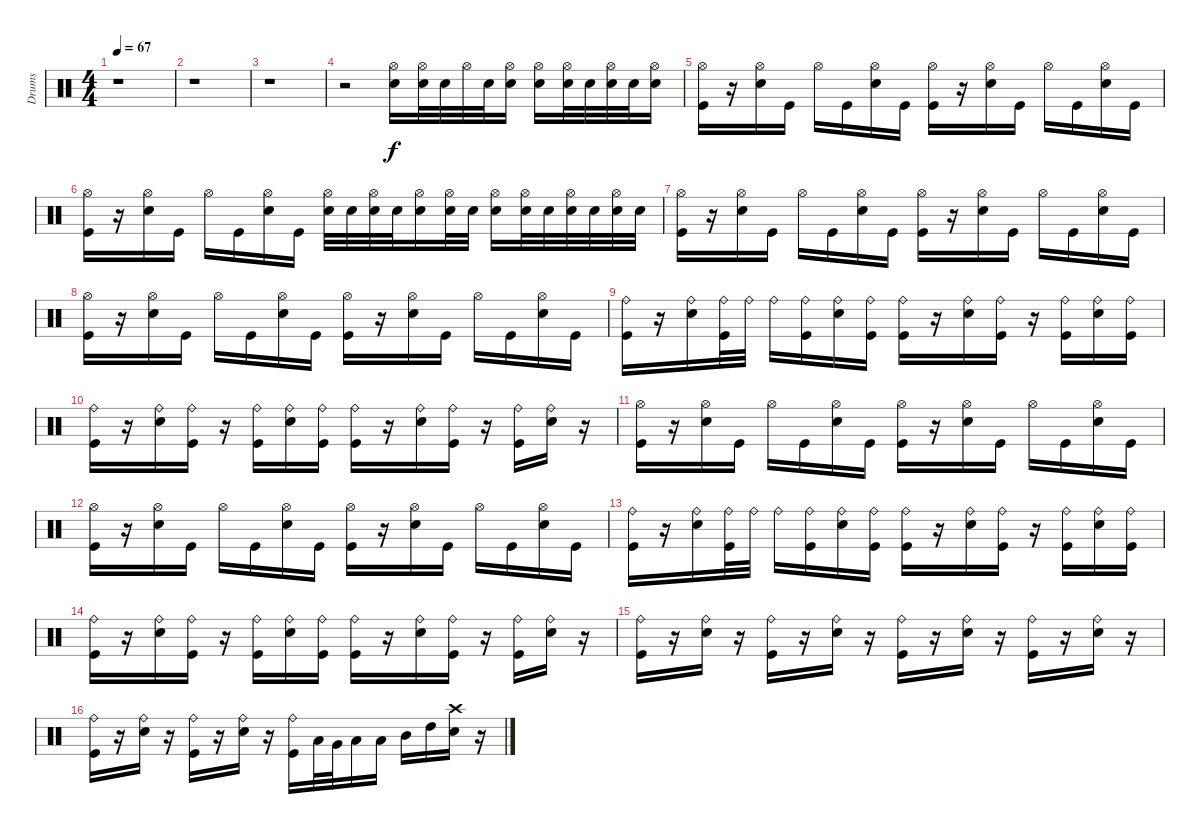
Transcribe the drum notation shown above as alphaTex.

\track ("Drums" "Drums") {instrument percussion}
\staff {score}
\articulation defaults
\ts (4 4)
\tempo 67
\clef neutral
\ks c
r.1{dy f} |
r.1 |
r.1 |
r.2 ("Hi-Hat (open)" "Metronome (bell)").16 ("Hi-Hat (open)" "Metronome (bell)").32 "Metronome (bell)".32 "Hi-Hat (open)".32 "Metronome (bell)".32 ("Hi-Hat (open)" "Metronome (bell)").16 ("Hi-Hat (open)" "Metronome (bell)").16 ("Hi-Hat (open)" "Metronome (bell)").32 "Metronome (bell)".32 ("Hi-Hat (open)" "Metronome (bell)").32 "Metronome (bell)".32 ("Hi-Hat (open)" "Metronome (bell)").16 |
("Hi-Hat (open)" "Kick (hit)").16 r.16 ("Hi-Hat (open)" "Electric Snare (hit)").16 "Kick (hit)".16 "Hi-Hat (open)".16 "Kick (hit)".16 ("Hi-Hat (open)" "Electric Snare (hit)").16 "Kick (hit)".16 ("Kick (hit)" "Hi-Hat (open)").16 r.16 ("Hi-Hat (open)" "Electric Snare (hit)").16 "Kick (hit)".16 "Hi-Hat (open)".16 "Kick (hit)".16 ("Electric Snare (hit)" "Hi-Hat (open)").16 "Kick (hit)".16 |
("Hi-Hat (open)" "Kick (hit)").16 r.16 ("Electric Snare (hit)" "Hi-Hat (open)").16 "Kick (hit)".16 "Hi-Hat (open)".16 "Kick (hit)".16 ("Electric Snare (hit)" "Hi-Hat (open)").16 "Kick (hit)".16 ("Hi-Hat (open)" "Snare (hit) 2").32 "Snare (hit) 2".32 ("Hi-Hat (open)" "Snare (hit) 2").32 "Snare (hit) 2".32 ("Snare (hit) 2" "Hi-Hat (open)").16 ("Snare (hit) 2" "Hi-Hat (open)").32 "Snare (hit) 2".32 ("Snare (hit) 2" "Hi-Hat (open)").16 ("Hi-Hat (open)" "Snare (hit) 2").32 "Snare (hit) 2".32 ("Hi-Hat (open)" "Snare (hit) 2").32 "Snare (hit) 2".32 ("Hi-Hat (open)" "Snare (hit) 2").32 "Snare (hit) 2".32 |
("Hi-Hat (open)" "Kick (hit)").16 r.16 ("Hi-Hat (open)" "Electric Snare (hit)").16 "Kick (hit)".16 "Hi-Hat (open)".16 "Kick (hit)".16 ("Hi-Hat (open)" "Electric Snare (hit)").16 "Kick (hit)".16 ("Kick (hit)" "Hi-Hat (open)").16 r.16 ("Electric Snare (hit)" "Hi-Hat (open)").16 "Kick (hit)".16 "Hi-Hat (open)".16 "Kick (hit)".16 ("Hi-Hat (open)" "Electric Snare (hit)").16 "Kick (hit)".16 |
("Kick (hit)" "Hi-Hat (open)").16 r.16 ("Hi-Hat (open)" "Electric Snare (hit)").16 "Kick (hit)".16 "Hi-Hat (open)".16 "Kick (hit)".16 ("Electric Snare (hit)" "Hi-Hat (open)").16 "Kick (hit)".16 ("Hi-Hat (open)" "Kick (hit)").16 r.16 ("Hi-Hat (open)" "Electric Snare (hit)").16 "Kick (hit)".16 "Hi-Hat (open)".16 "Kick (hit)".16 ("Hi-Hat (open)" "Electric Snare (hit)").16 "Kick (hit)".16 |
("Kick (hit)" "Ride (bell)").16 r.16 ("Ride (bell)" "Electric Snare (hit)").16 ("Ride (bell)" "Kick (hit)").32 "Ride (bell)".32 "Ride (bell)".16 ("Ride (bell)" "Kick (hit)").16 ("Electric Snare (hit)" "Ride (bell)").16 ("Kick (hit)" "Ride (bell)").16 ("Kick (hit)" "Ride (bell)").16 r.16 ("Ride (bell)" "Electric Snare (hit)").16 ("Kick (hit)" "Ride (bell)").16 r.16 ("Kick (hit)" "Ride (bell)").16 ("Electric Snare (hit)" "Ride (bell)").16 ("Ride (bell)" "Kick (hit)").16 |
("Ride (bell)" "Kick (hit)").16 r.16 ("Electric Snare (hit)" "Ride (bell)").16 ("Ride (bell)" "Kick (hit)").16 r.16 ("Ride (bell)" "Kick (hit)").16 ("Electric Snare (hit)" "Ride (bell)").16 ("Kick (hit)" "Ride (bell)").16 ("Kick (hit)" "Ride (bell)").16 r.16 ("Electric Snare (hit)" "Ride (bell)").16 ("Kick (hit)" "Ride (bell)").16 r.16 ("Kick (hit)" "Ride (bell)").16 ("Ride (bell)" "Electric Snare (hit)").16 r.16 |
("Kick (hit)" "Hi-Hat (open)").16 r.16 ("Hi-Hat (open)" "Electric Snare (hit)").16 "Kick (hit)".16 "Hi-Hat (open)".16 "Kick (hit)".16 ("Electric Snare (hit)" "Hi-Hat (open)").16 "Kick (hit)".16 ("Kick (hit)" "Hi-Hat (open)").16 r.16 ("Hi-Hat (open)" "Electric Snare (hit)").16 "Kick (hit)".16 "Hi-Hat (open)".16 "Kick (hit)".16 ("Hi-Hat (open)" "Electric Snare (hit)").16 "Kick (hit)".16 |
("Kick (hit)" "Hi-Hat (open)").16 r.16 ("Hi-Hat (open)" "Electric Snare (hit)").16 "Kick (hit)".16 "Hi-Hat (open)".16 "Kick (hit)".16 ("Hi-Hat (open)" "Electric Snare (hit)").16 "Kick (hit)".16 ("Hi-Hat (open)" "Kick (hit)").16 r.16 ("Hi-Hat (open)" "Electric Snare (hit)").16 "Kick (hit)".16 "Hi-Hat (open)".16 "Kick (hit)".16 ("Hi-Hat (open)" "Electric Snare (hit)").16 "Kick (hit)".16 |
("Kick (hit)" "Ride (bell)").16 r.16 ("Electric Snare (hit)" "Ride (bell)").16 ("Ride (bell)" "Kick (hit)").32 "Ride (bell)".32 "Ride (bell)".16 ("Kick (hit)" "Ride (bell)").16 ("Ride (bell)" "Electric Snare (hit)").16 ("Ride (bell)" "Kick (hit)").16 ("Ride (bell)" "Kick (hit)").16 r.16 ("Electric Snare (hit)" "Ride (bell)").16 ("Kick (hit)" "Ride (bell)").16 r.16 ("Kick (hit)" "Ride (bell)").16 ("Electric Snare (hit)" "Ride (bell)").16 ("Kick (hit)" "Ride (bell)").16 |
("Kick (hit)" "Ride (bell)").16 r.16 ("Ride (bell)" "Electric Snare (hit)").16 ("Ride (bell)" "Kick (hit)").16 r.16 ("Kick (hit)" "Ride (bell)").16 ("Electric Snare (hit)" "Ride (bell)").16 ("Kick (hit)" "Ride (bell)").16 ("Ride (bell)" "Kick (hit)").16 r.16 ("Electric Snare (hit)" "Ride (bell)").16 ("Kick (hit)" "Ride (bell)").16 r.16 ("Kick (hit)" "Ride (bell)").16 ("Electric Snare (hit)" "Ride (bell)").16 r.16 |
("Kick (hit)" "Ride (bell)").16 r.16 ("Ride (bell)" "Electric Snare (hit)").16 r.16 ("Ride (bell)" "Kick (hit)").16 r.16 ("Ride (bell)" "Electric Snare (hit)").16 r.16 ("Ride (bell)" "Kick (hit)").16 r.16 ("Ride (bell)" "Electric Snare (hit)").16 r.16 ("Kick (hit)" "Ride (bell)").16 r.16 ("Ride (bell)" "Electric Snare (hit)").16 r.16 |
("Kick (hit)" "Ride (bell)").16 r.16 ("Electric Snare (hit)" "Ride (bell)").16 r.16 ("Kick (hit)" "Ride (bell)").16 r.16 ("Electric Snare (hit)" "Ride (bell)").16 r.16 ("Ride (bell)" "Kick (hit)").16 "Low Floor Tom (hit)".32 "Very Low Tom (hit)".32 "Low Tom (hit)".16 "Low Tom (hit)".16 "Mid Tom (hit)".16 "High Tom (hit)".16 ("Crash high (hit)" "Metronome (bell)").16 r.16
